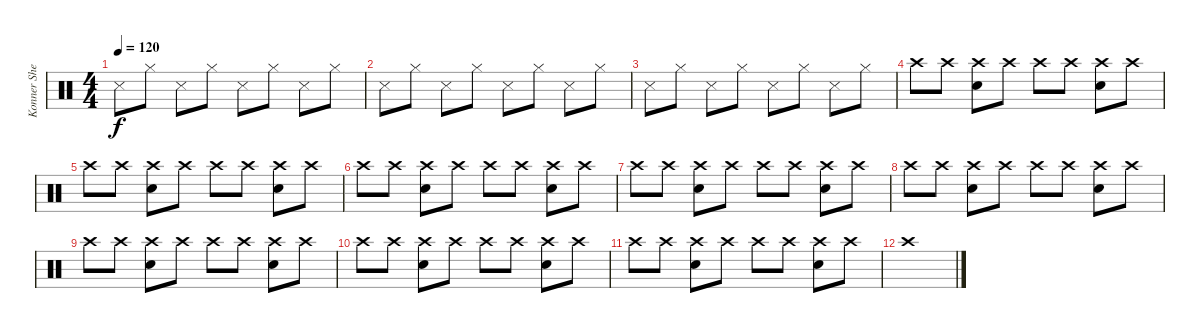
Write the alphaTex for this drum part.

\track ("Konner Sherman (Percussion)" "Konner She") {instrument percussion}
\staff {score}
\articulation defaults
\ts (4 4)
\tempo 120
\clef neutral
\ks c "Snare (side stick) 3".8{dy f} "Hi-Hat (closed)".8 "Snare (side stick) 3".8 "Hi-Hat (closed)".8 "Snare (side stick) 3".8 "Hi-Hat (closed)".8 "Snare (side stick) 3".8 "Hi-Hat (closed)".8
|
"Snare (side stick) 3".8 "Hi-Hat (closed)".8 "Snare (side stick) 3".8 "Hi-Hat (closed)".8 "Snare (side stick) 3".8 "Hi-Hat (closed)".8 "Snare (side stick) 3".8 "Hi-Hat (closed)".8 |
"Snare (side stick) 3".8 "Hi-Hat (closed)".8 "Snare (side stick) 3".8 "Hi-Hat (closed)".8 "Snare (side stick) 3".8 "Hi-Hat (closed)".8 "Snare (side stick) 3".8 "Hi-Hat (closed)".8 |
"Crash high (hit)".8 "Crash high (hit)".8 ("Crash high (hit)" "Electric Snare (hit)").8 "Crash high (hit)".8 "Crash high (hit)".8 "Crash high (hit)".8 ("Crash high (hit)" "Electric Snare (hit)").8 "Crash high (hit)".8 |
"Crash high (hit)".8 "Crash high (hit)".8 ("Crash high (hit)" "Electric Snare (hit)").8 "Crash high (hit)".8 "Crash high (hit)".8 "Crash high (hit)".8 ("Crash high (hit)" "Electric Snare (hit)").8 "Crash high (hit)".8 |
"Crash high (hit)".8 "Crash high (hit)".8 ("Crash high (hit)" "Electric Snare (hit)").8 "Crash high (hit)".8 "Crash high (hit)".8 "Crash high (hit)".8 ("Crash high (hit)" "Electric Snare (hit)").8 "Crash high (hit)".8 |
"Crash high (hit)".8 "Crash high (hit)".8 ("Crash high (hit)" "Electric Snare (hit)").8 "Crash high (hit)".8 "Crash high (hit)".8 "Crash high (hit)".8 ("Crash high (hit)" "Electric Snare (hit)").8 "Crash high (hit)".8 |
"Crash high (hit)".8 "Crash high (hit)".8 ("Crash high (hit)" "Electric Snare (hit)").8 "Crash high (hit)".8 "Crash high (hit)".8 "Crash high (hit)".8 ("Crash high (hit)" "Electric Snare (hit)").8 "Crash high (hit)".8 |
"Crash high (hit)".8 "Crash high (hit)".8 ("Crash high (hit)" "Electric Snare (hit)").8 "Crash high (hit)".8 "Crash high (hit)".8 "Crash high (hit)".8 ("Crash high (hit)" "Electric Snare (hit)").8 "Crash high (hit)".8 |
"Crash high (hit)".8 "Crash high (hit)".8 ("Crash high (hit)" "Electric Snare (hit)").8 "Crash high (hit)".8 "Crash high (hit)".8 "Crash high (hit)".8 ("Crash high (hit)" "Electric Snare (hit)").8 "Crash high (hit)".8 |
"Crash high (hit)".8 "Crash high (hit)".8 ("Crash high (hit)" "Electric Snare (hit)").8 "Crash high (hit)".8 "Crash high (hit)".8 "Crash high (hit)".8 ("Crash high (hit)" "Electric Snare (hit)").8 "Crash high (hit)".8 |
"Crash high (hit)".1
